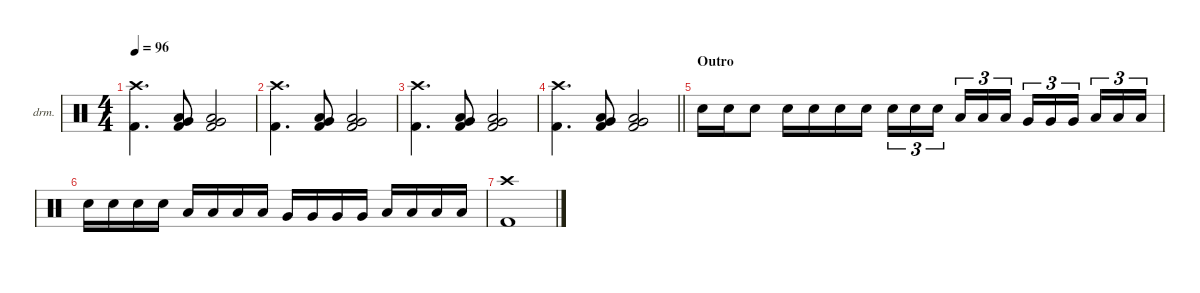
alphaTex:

\defaultSystemsLayout 4
\hideDynamics
\bracketExtendMode nobrackets
\firstSystemTrackNameOrientation horizontal
\otherSystemsTrackNameOrientation horizontal
\track ("Drums" "drm.") {instrument percussion}
\staff {score}
\articulation defaults
\ts (4 4)
\tempo 96
\clef neutral
\ks c
("Crash high (hit)" "Kick (hit) 2").4{d dy f} ("Very Low Tom (hit)" "Low Tom (hit)" "Kick (hit) 2").8 ("Very Low Tom (hit)" "Low Tom (hit)" "Kick (hit) 2").2 |
("Crash high (hit)" "Kick (hit) 2").4{d} ("Very Low Tom (hit)" "Low Tom (hit)" "Kick (hit) 2").8 ("Very Low Tom (hit)" "Low Tom (hit)" "Kick (hit) 2").2 |
("Crash high (hit)" "Kick (hit) 2").4{d} ("Very Low Tom (hit)" "Low Tom (hit)" "Kick (hit) 2").8 ("Very Low Tom (hit)" "Low Tom (hit)" "Kick (hit) 2").2 |
\barLineRight lightlight
("Crash high (hit)" "Kick (hit) 2").4{d} ("Very Low Tom (hit)" "Low Tom (hit)" "Kick (hit) 2").8 ("Very Low Tom (hit)" "Low Tom (hit)" "Kick (hit) 2").2 |
\section ("" "Outro")
"Snare (hit) 2".16 "Snare (hit) 2".16 "Snare (hit) 2".8 "Snare (hit) 2".16 "Snare (hit) 2".16 "Snare (hit) 2".16 "Snare (hit) 2".16 "Snare (hit) 2".16{tu (3 2)} "Snare (hit) 2".16{tu (3 2)} "Snare (hit) 2".16{tu (3 2)} "Low Tom (hit)".16{tu (3 2)} "Low Tom (hit)".16{tu (3 2)} "Low Tom (hit)".16{tu (3 2)} "Very Low Tom (hit)".16{tu (3 2)} "Very Low Tom (hit)".16{tu (3 2)} "Very Low Tom (hit)".16{tu (3 2)} "Low Floor Tom (hit)".16{tu (3 2)} "Low Floor Tom (hit)".16{tu (3 2)} "Low Floor Tom (hit)".16{tu (3 2)} |
"Snare (hit) 2".16 "Snare (hit) 2".16 "Snare (hit) 2".16 "Snare (hit) 2".16 "Low Tom (hit)".16 "Low Tom (hit)".16 "Low Tom (hit)".16 "Low Tom (hit)".16 "Very Low Tom (hit)".16 "Very Low Tom (hit)".16 "Very Low Tom (hit)".16 "Very Low Tom (hit)".16 "Low Floor Tom (hit)".16 "Low Floor Tom (hit)".16 "Low Floor Tom (hit)".16 "Low Floor Tom (hit)".16 |
("Crash high (hit)" "Kick (hit) 2").1
